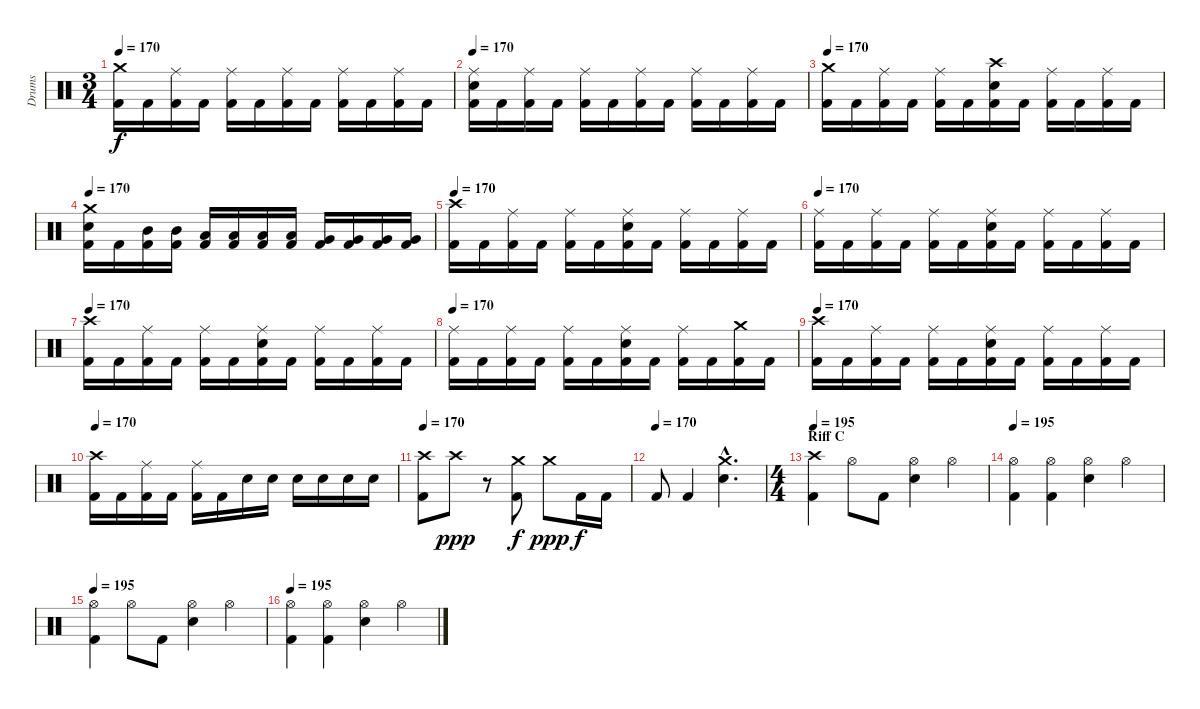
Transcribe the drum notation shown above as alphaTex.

\track ("Drums" "Drums") {instrument percussion}
\staff {score}
\articulation defaults
\ts (3 4)
\tempo 170
\clef neutral
\ks c
("Crash medium (hit)" "Kick (hit) 2").16{dy f} "Kick (hit) 2".16 ("Ride (middle)" "Kick (hit) 2").16 "Kick (hit) 2".16 ("Ride (middle)" "Kick (hit) 2").16 "Kick (hit) 2".16 ("Ride (middle)" "Kick (hit) 2").16 "Kick (hit) 2".16 ("Ride (middle)" "Kick (hit) 2").16 "Kick (hit) 2".16 ("Ride (middle)" "Kick (hit) 2").16 "Kick (hit) 2".16 |
\tempo 170
("Ride (middle)" "Electric Snare (hit)" "Kick (hit) 2").16 "Kick (hit) 2".16 ("Ride (middle)" "Kick (hit) 2").16 "Kick (hit) 2".16 ("Ride (middle)" "Kick (hit) 2").16 "Kick (hit) 2".16 ("Ride (middle)" "Kick (hit) 2").16 "Kick (hit) 2".16 ("Ride (middle)" "Kick (hit) 2").16 "Kick (hit) 2".16 ("Ride (middle)" "Kick (hit) 2").16 "Kick (hit) 2".16 |
\tempo 170
("Crash medium (hit)" "Kick (hit) 2").16 "Kick (hit) 2".16 ("Ride (middle)" "Kick (hit) 2").16 "Kick (hit) 2".16 ("Ride (middle)" "Kick (hit) 2").16 "Kick (hit) 2".16 ("Crash high (hit)" "Electric Snare (hit)" "Kick (hit) 2").16 "Kick (hit) 2".16 ("Ride (middle)" "Kick (hit) 2").16 "Kick (hit) 2".16 ("Ride (middle)" "Kick (hit) 2").16 "Kick (hit) 2".16 |
\tempo 170
("Crash medium (hit)" "Electric Snare (hit)" "Kick (hit) 2").16 "Kick (hit) 2".16 ("Mid Tom (hit)" "Kick (hit) 2").16 ("Mid Tom (hit)" "Kick (hit) 2").16 ("Low Tom (hit)" "Kick (hit) 2").16 ("Low Tom (hit)" "Kick (hit) 2").16 ("Low Tom (hit)" "Kick (hit) 2").16 ("Low Tom (hit)" "Kick (hit) 2").16 ("Very Low Tom (hit)" "Kick (hit) 2").16 ("Very Low Tom (hit)" "Kick (hit) 2").16 ("Very Low Tom (hit)" "Kick (hit) 2").16 ("Very Low Tom (hit)" "Kick (hit) 2").16 |
\tempo 170
("Crash high (hit)" "Kick (hit) 2").16 "Kick (hit) 2".16 ("Ride (middle)" "Kick (hit) 2").16 "Kick (hit) 2".16 ("Ride (middle)" "Kick (hit) 2").16 "Kick (hit) 2".16 ("Ride (middle)" "Electric Snare (hit)" "Kick (hit) 2").16 "Kick (hit) 2".16 ("Ride (middle)" "Kick (hit) 2").16 "Kick (hit) 2".16 ("Ride (middle)" "Kick (hit) 2").16 "Kick (hit) 2".16 |
\tempo 170
("Ride (middle)" "Kick (hit) 2").16 "Kick (hit) 2".16 ("Ride (middle)" "Kick (hit) 2").16 "Kick (hit) 2".16 ("Ride (middle)" "Kick (hit) 2").16 "Kick (hit) 2".16 ("Ride (middle)" "Electric Snare (hit)" "Kick (hit) 2").16 "Kick (hit) 2".16 ("Ride (middle)" "Kick (hit) 2").16 "Kick (hit) 2".16 ("Ride (middle)" "Kick (hit) 2").16 "Kick (hit) 2".16 |
\tempo 170
("Crash high (hit)" "Kick (hit) 2").16 "Kick (hit) 2".16 ("Ride (middle)" "Kick (hit) 2").16 "Kick (hit) 2".16 ("Ride (middle)" "Kick (hit) 2").16 "Kick (hit) 2".16 ("Ride (middle)" "Electric Snare (hit)" "Kick (hit) 2").16 "Kick (hit) 2".16 ("Ride (middle)" "Kick (hit) 2").16 "Kick (hit) 2".16 ("Ride (middle)" "Kick (hit) 2").16 "Kick (hit) 2".16 |
\tempo 170
("Ride (middle)" "Kick (hit) 2").16 "Kick (hit) 2".16 ("Ride (middle)" "Kick (hit) 2").16 "Kick (hit) 2".16 ("Ride (middle)" "Kick (hit) 2").16 "Kick (hit) 2".16 ("Ride (middle)" "Electric Snare (hit)" "Kick (hit) 2").16 "Kick (hit) 2".16 ("Ride (middle)" "Kick (hit) 2").16 "Kick (hit) 2".16 ("Crash medium (hit)" "Kick (hit) 2").16 "Kick (hit) 2".16 |
\tempo 170
("Crash high (hit)" "Kick (hit) 2").16 "Kick (hit) 2".16 ("Ride (middle)" "Kick (hit) 2").16 "Kick (hit) 2".16 ("Ride (middle)" "Kick (hit) 2").16 "Kick (hit) 2".16 ("Ride (middle)" "Electric Snare (hit)" "Kick (hit) 2").16 "Kick (hit) 2".16 ("Ride (middle)" "Kick (hit) 2").16 "Kick (hit) 2".16 ("Ride (middle)" "Kick (hit) 2").16 "Kick (hit) 2".16 |
\tempo 170
("Crash high (hit)" "Kick (hit) 2").16 "Kick (hit) 2".16 ("Ride (middle)" "Kick (hit) 2").16 "Kick (hit) 2".16 ("Ride (middle)" "Kick (hit) 2").16 "Kick (hit) 2".16 "Electric Snare (hit)".16 "Electric Snare (hit)".16 "Electric Snare (hit)".16 "Electric Snare (hit)".16 "Electric Snare (hit)".16 "Electric Snare (hit)".16 |
\tempo 170
("Crash high (hit)" "Kick (hit) 2").8 "Crash high (hit)".8{dy ppp} r.8 ("Crash medium (hit)" "Kick (hit) 2").8{dy f} "Crash medium (hit)".8{dy ppp} "Kick (hit) 2".16{dy f} "Kick (hit) 2".16 |
\tempo (170)
"Kick (hit) 2".8 "Kick (hit) 2".4 ("Crash medium (hit)"{hac} "Electric Snare (hit)"{hac}).4{d} |
\ts (4 4)
\section ("" "Riff C")
\tempo 195
("Crash high (hit)" "Kick (hit) 2").4 "Hi-Hat (open)".8 "Kick (hit) 2".8 ("Hi-Hat (open)" "Electric Snare (hit)").4 "Hi-Hat (open)".4 |
\tempo 195
("Hi-Hat (open)" "Kick (hit) 2").4 ("Hi-Hat (open)" "Kick (hit) 2").4 ("Hi-Hat (open)" "Electric Snare (hit)").4 "Hi-Hat (open)".4 |
\tempo 195
("Hi-Hat (open)" "Kick (hit) 2").4 "Hi-Hat (open)".8 "Kick (hit) 2".8 ("Hi-Hat (open)" "Electric Snare (hit)").4 "Hi-Hat (open)".4 |
\tempo 195
("Hi-Hat (open)" "Kick (hit) 2").4 ("Hi-Hat (open)" "Kick (hit) 2").4 ("Hi-Hat (open)" "Electric Snare (hit)").4 "Hi-Hat (open)".4
